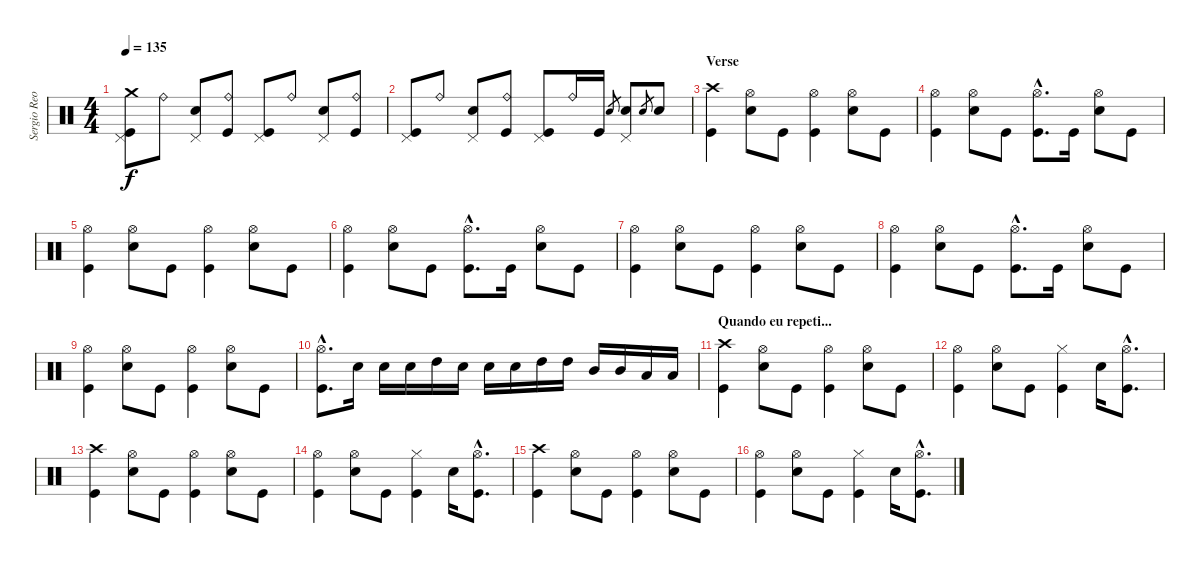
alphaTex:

\track ("Sergio Reoli" "Sergio Reo") {instrument percussion}
\staff {score}
\articulation defaults
\ts (4 4)
\tempo 135
\clef neutral
\ks c
("Crash medium (hit)" "Pedal Hi-Hat (hit)" "Kick (hit)").8{dy f} "Ride (bell)".8 ("Electric Snare (hit)" "Pedal Hi-Hat (hit)").8 ("Ride (bell)" "Kick (hit)").8 ("Pedal Hi-Hat (hit)" "Kick (hit)").8 "Ride (bell)".8 ("Electric Snare (hit)" "Pedal Hi-Hat (hit)").8 ("Ride (bell)" "Kick (hit)").8 |
("Pedal Hi-Hat (hit)" "Kick (hit)").8 "Ride (bell)".8 ("Electric Snare (hit)" "Pedal Hi-Hat (hit)").8 ("Ride (bell)" "Kick (hit)").8 ("Pedal Hi-Hat (hit)" "Kick (hit)").8 "Ride (bell)".16 "Kick (hit)".16 "Electric Snare (hit)".8{gr} ("Electric Snare (hit)" "Pedal Hi-Hat (hit)").8 "Electric Snare (hit)".8{gr} "Electric Snare (hit)".8 |
\section ("" "Verse")
("Crash high (hit)" "Kick (hit)").4 ("Hi-Hat (open)" "Electric Snare (hit)").8 "Kick (hit)".8 ("Hi-Hat (open)" "Kick (hit)").4 ("Hi-Hat (open)" "Electric Snare (hit)").8 "Kick (hit)".8 |
("Hi-Hat (open)" "Kick (hit)").4 ("Hi-Hat (open)" "Electric Snare (hit)").8 "Kick (hit)".8 ("Hi-Hat (open)"{hac} "Kick (hit)"{hac}).8{d} "Kick (hit)".16 ("Hi-Hat (open)" "Electric Snare (hit)").8 "Kick (hit)".8 |
("Hi-Hat (open)" "Kick (hit)").4 ("Hi-Hat (open)" "Electric Snare (hit)").8 "Kick (hit)".8 ("Hi-Hat (open)" "Kick (hit)").4 ("Hi-Hat (open)" "Electric Snare (hit)").8 "Kick (hit)".8 |
("Hi-Hat (open)" "Kick (hit)").4 ("Hi-Hat (open)" "Electric Snare (hit)").8 "Kick (hit)".8 ("Hi-Hat (open)"{hac} "Kick (hit)"{hac}).8{d} "Kick (hit)".16 ("Hi-Hat (open)" "Electric Snare (hit)").8 "Kick (hit)".8 |
("Hi-Hat (open)" "Kick (hit)").4 ("Hi-Hat (open)" "Electric Snare (hit)").8 "Kick (hit)".8 ("Hi-Hat (open)" "Kick (hit)").4 ("Hi-Hat (open)" "Electric Snare (hit)").8 "Kick (hit)".8 |
("Hi-Hat (open)" "Kick (hit)").4 ("Hi-Hat (open)" "Electric Snare (hit)").8 "Kick (hit)".8 ("Hi-Hat (open)"{hac} "Kick (hit)"{hac}).8{d} "Kick (hit)".16 ("Hi-Hat (open)" "Electric Snare (hit)").8 "Kick (hit)".8 |
("Hi-Hat (open)" "Kick (hit)").4 ("Hi-Hat (open)" "Electric Snare (hit)").8 "Kick (hit)".8 ("Hi-Hat (open)" "Kick (hit)").4 ("Hi-Hat (open)" "Electric Snare (hit)").8 "Kick (hit)".8 |
("Hi-Hat (open)"{hac} "Kick (hit)"{hac}).8{d} "Electric Snare (hit)".16 "Electric Snare (hit)".16 "Electric Snare (hit)".16 "High Tom (hit)".16 "Electric Snare (hit)".16 "Electric Snare (hit)".16 "Electric Snare (hit)".16 "High Tom (hit)".16 "High Tom (hit)".16 "Mid Tom (hit)".16 "Mid Tom (hit)".16 "Low Tom (hit)".16 "Low Tom (hit)".16 |
\section ("" "Quando eu repeti...")
("Crash high (hit)" "Kick (hit)").4 ("Hi-Hat (open)" "Electric Snare (hit)").8 "Kick (hit)".8 ("Hi-Hat (open)" "Kick (hit)").4 ("Hi-Hat (open)" "Electric Snare (hit)").8 "Kick (hit)".8 |
("Hi-Hat (open)" "Kick (hit)").4 ("Hi-Hat (open)" "Electric Snare (hit)").8 "Kick (hit)".8 ("Hi-Hat (closed)" "Kick (hit)").4 "Electric Snare (hit)".16 ("Hi-Hat (open)"{hac} "Kick (hit)"{hac}).8{d} |
("Crash high (hit)" "Kick (hit)").4 ("Hi-Hat (open)" "Electric Snare (hit)").8 "Kick (hit)".8 ("Hi-Hat (open)" "Kick (hit)").4 ("Hi-Hat (open)" "Electric Snare (hit)").8 "Kick (hit)".8 |
("Hi-Hat (open)" "Kick (hit)").4 ("Hi-Hat (open)" "Electric Snare (hit)").8 "Kick (hit)".8 ("Hi-Hat (closed)" "Kick (hit)").4 "Electric Snare (hit)".16 ("Hi-Hat (open)"{hac} "Kick (hit)"{hac}).8{d} |
("Crash high (hit)" "Kick (hit)").4 ("Hi-Hat (open)" "Electric Snare (hit)").8 "Kick (hit)".8 ("Hi-Hat (open)" "Kick (hit)").4 ("Hi-Hat (open)" "Electric Snare (hit)").8 "Kick (hit)".8 |
("Hi-Hat (open)" "Kick (hit)").4 ("Hi-Hat (open)" "Electric Snare (hit)").8 "Kick (hit)".8 ("Hi-Hat (closed)" "Kick (hit)").4 "Electric Snare (hit)".16 ("Hi-Hat (open)"{hac} "Kick (hit)"{hac}).8{d}
